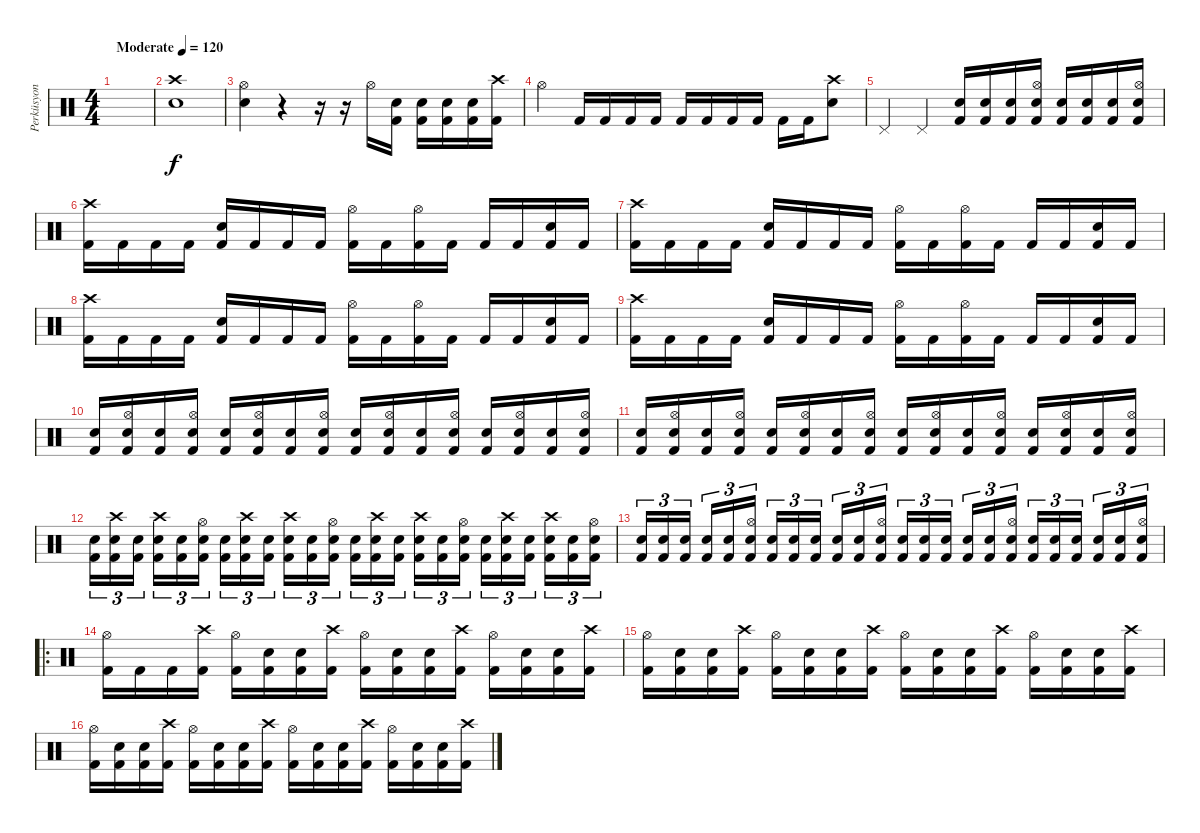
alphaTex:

\track ("Perküsyon" "Perküsyon") {instrument percussion}
\staff {score}
\articulation defaults
\ts (4 4)
\tempo (120 "Moderate")
\clef neutral
\ks c
|
("Crash high (hit)" "Electric Snare (hit)").1 |
("Hi-Hat (open)" "Electric Snare (hit)").4 r.4 r.16 r.16 "Hi-Hat (open)".16 ("Electric Snare (hit)" "Kick (hit) 2").16 ("Electric Snare (hit)" "Kick (hit) 2").16 ("Electric Snare (hit)" "Kick (hit) 2").16 ("Electric Snare (hit)" "Kick (hit) 2").16 ("Crash high (hit)" "Kick (hit) 2").16 |
"Hi-Hat (open)".4 "Kick (hit) 2".16 "Kick (hit) 2".16 "Kick (hit) 2".16 "Kick (hit) 2".16 "Kick (hit) 2".16 "Kick (hit) 2".16 "Kick (hit) 2".16 "Kick (hit) 2".16 "Kick (hit) 2".16 "Kick (hit) 2".16 ("Crash high (hit)" "Electric Snare (hit)").8 |
"Pedal Hi-Hat (hit)".4 "Pedal Hi-Hat (hit)".4 ("Electric Snare (hit)" "Kick (hit) 2").16 ("Electric Snare (hit)" "Kick (hit) 2").16 ("Electric Snare (hit)" "Kick (hit) 2").16 ("Hi-Hat (open)" "Electric Snare (hit)" "Kick (hit) 2").16 ("Electric Snare (hit)" "Kick (hit) 2").16 ("Electric Snare (hit)" "Kick (hit) 2").16 ("Electric Snare (hit)" "Kick (hit) 2").16 ("Hi-Hat (open)" "Electric Snare (hit)" "Kick (hit) 2").16 |
("Crash high (hit)" "Kick (hit) 2").16 "Kick (hit) 2".16 "Kick (hit) 2".16 "Kick (hit) 2".16 ("Electric Snare (hit)" "Kick (hit) 2").16 "Kick (hit) 2".16 "Kick (hit) 2".16 "Kick (hit) 2".16 ("Hi-Hat (open)" "Kick (hit) 2").16 "Kick (hit) 2".16 ("Hi-Hat (open)" "Kick (hit) 2").16 "Kick (hit) 2".16 "Kick (hit) 2".16 "Kick (hit) 2".16 ("Electric Snare (hit)" "Kick (hit) 2").16 "Kick (hit) 2".16 |
("Crash high (hit)" "Kick (hit) 2").16 "Kick (hit) 2".16 "Kick (hit) 2".16 "Kick (hit) 2".16 ("Electric Snare (hit)" "Kick (hit) 2").16 "Kick (hit) 2".16 "Kick (hit) 2".16 "Kick (hit) 2".16 ("Hi-Hat (open)" "Kick (hit) 2").16 "Kick (hit) 2".16 ("Hi-Hat (open)" "Kick (hit) 2").16 "Kick (hit) 2".16 "Kick (hit) 2".16 "Kick (hit) 2".16 ("Electric Snare (hit)" "Kick (hit) 2").16 "Kick (hit) 2".16 |
("Crash high (hit)" "Kick (hit) 2").16 "Kick (hit) 2".16 "Kick (hit) 2".16 "Kick (hit) 2".16 ("Electric Snare (hit)" "Kick (hit) 2").16 "Kick (hit) 2".16 "Kick (hit) 2".16 "Kick (hit) 2".16 ("Hi-Hat (open)" "Kick (hit) 2").16 "Kick (hit) 2".16 ("Hi-Hat (open)" "Kick (hit) 2").16 "Kick (hit) 2".16 "Kick (hit) 2".16 "Kick (hit) 2".16 ("Electric Snare (hit)" "Kick (hit) 2").16 "Kick (hit) 2".16 |
("Crash high (hit)" "Kick (hit) 2").16 "Kick (hit) 2".16 "Kick (hit) 2".16 "Kick (hit) 2".16 ("Electric Snare (hit)" "Kick (hit) 2").16 "Kick (hit) 2".16 "Kick (hit) 2".16 "Kick (hit) 2".16 ("Hi-Hat (open)" "Kick (hit) 2").16 "Kick (hit) 2".16 ("Hi-Hat (open)" "Kick (hit) 2").16 "Kick (hit) 2".16 "Kick (hit) 2".16 "Kick (hit) 2".16 ("Electric Snare (hit)" "Kick (hit) 2").16 "Kick (hit) 2".16 |
("Electric Snare (hit)" "Kick (hit) 2").16 ("Hi-Hat (open)" "Electric Snare (hit)" "Kick (hit) 2").16 ("Electric Snare (hit)" "Kick (hit) 2").16 ("Hi-Hat (open)" "Electric Snare (hit)" "Kick (hit) 2").16 ("Electric Snare (hit)" "Kick (hit) 2").16 ("Hi-Hat (open)" "Electric Snare (hit)" "Kick (hit) 2").16 ("Electric Snare (hit)" "Kick (hit) 2").16 ("Hi-Hat (open)" "Electric Snare (hit)" "Kick (hit) 2").16 ("Electric Snare (hit)" "Kick (hit) 2").16 ("Hi-Hat (open)" "Electric Snare (hit)" "Kick (hit) 2").16 ("Electric Snare (hit)" "Kick (hit) 2").16 ("Hi-Hat (open)" "Electric Snare (hit)" "Kick (hit) 2").16 ("Electric Snare (hit)" "Kick (hit) 2").16 ("Hi-Hat (open)" "Electric Snare (hit)" "Kick (hit) 2").16 ("Electric Snare (hit)" "Kick (hit) 2").16 ("Hi-Hat (open)" "Electric Snare (hit)" "Kick (hit) 2").16 |
("Electric Snare (hit)" "Kick (hit) 2").16 ("Hi-Hat (open)" "Electric Snare (hit)" "Kick (hit) 2").16 ("Electric Snare (hit)" "Kick (hit) 2").16 ("Hi-Hat (open)" "Electric Snare (hit)" "Kick (hit) 2").16 ("Electric Snare (hit)" "Kick (hit) 2").16 ("Hi-Hat (open)" "Electric Snare (hit)" "Kick (hit) 2").16 ("Electric Snare (hit)" "Kick (hit) 2").16 ("Hi-Hat (open)" "Electric Snare (hit)" "Kick (hit) 2").16 ("Electric Snare (hit)" "Kick (hit) 2").16 ("Hi-Hat (open)" "Electric Snare (hit)" "Kick (hit) 2").16 ("Electric Snare (hit)" "Kick (hit) 2").16 ("Hi-Hat (open)" "Electric Snare (hit)" "Kick (hit) 2").16 ("Electric Snare (hit)" "Kick (hit) 2").16 ("Hi-Hat (open)" "Electric Snare (hit)" "Kick (hit) 2").16 ("Electric Snare (hit)" "Kick (hit) 2").16 ("Hi-Hat (open)" "Electric Snare (hit)" "Kick (hit) 2").16 |
("Electric Snare (hit)" "Kick (hit) 2").16{tu (3 2)} ("Crash high (hit)" "Electric Snare (hit)" "Kick (hit) 2").16{tu (3 2)} ("Electric Snare (hit)" "Kick (hit) 2").16{tu (3 2) beam splitsecondary} ("Crash high (hit)" "Electric Snare (hit)" "Kick (hit) 2").16{tu (3 2)} ("Electric Snare (hit)" "Kick (hit) 2").16{tu (3 2)} ("Hi-Hat (open)" "Electric Snare (hit)" "Kick (hit) 2").16{tu (3 2)} ("Electric Snare (hit)" "Kick (hit) 2").16{tu (3 2)} ("Crash high (hit)" "Electric Snare (hit)" "Kick (hit) 2").16{tu (3 2)} ("Electric Snare (hit)" "Kick (hit) 2").16{tu (3 2) beam splitsecondary} ("Crash high (hit)" "Electric Snare (hit)" "Kick (hit) 2").16{tu (3 2)} ("Electric Snare (hit)" "Kick (hit) 2").16{tu (3 2)} ("Hi-Hat (open)" "Electric Snare (hit)" "Kick (hit) 2").16{tu (3 2)} ("Electric Snare (hit)" "Kick (hit) 2").16{tu (3 2)} ("Crash high (hit)" "Electric Snare (hit)" "Kick (hit) 2").16{tu (3 2)} ("Electric Snare (hit)" "Kick (hit) 2").16{tu (3 2) beam splitsecondary} ("Crash high (hit)" "Electric Snare (hit)" "Kick (hit) 2").16{tu (3 2)} ("Electric Snare (hit)" "Kick (hit) 2").16{tu (3 2)} ("Hi-Hat (open)" "Electric Snare (hit)" "Kick (hit) 2").16{tu (3 2)} ("Electric Snare (hit)" "Kick (hit) 2").16{tu (3 2)} ("Crash high (hit)" "Electric Snare (hit)" "Kick (hit) 2").16{tu (3 2)} ("Electric Snare (hit)" "Kick (hit) 2").16{tu (3 2) beam splitsecondary} ("Crash high (hit)" "Electric Snare (hit)" "Kick (hit) 2").16{tu (3 2)} ("Electric Snare (hit)" "Kick (hit) 2").16{tu (3 2)} ("Hi-Hat (open)" "Electric Snare (hit)" "Kick (hit) 2").16{tu (3 2)} |
("Electric Snare (hit)" "Kick (hit) 2").16{tu (3 2)} ("Electric Snare (hit)" "Kick (hit) 2").16{tu (3 2)} ("Electric Snare (hit)" "Kick (hit) 2").16{tu (3 2) beam splitsecondary} ("Electric Snare (hit)" "Kick (hit) 2").16{tu (3 2)} ("Electric Snare (hit)" "Kick (hit) 2").16{tu (3 2)} ("Hi-Hat (open)" "Electric Snare (hit)" "Kick (hit) 2").16{tu (3 2)} ("Electric Snare (hit)" "Kick (hit) 2").16{tu (3 2)} ("Electric Snare (hit)" "Kick (hit) 2").16{tu (3 2)} ("Electric Snare (hit)" "Kick (hit) 2").16{tu (3 2) beam splitsecondary} ("Electric Snare (hit)" "Kick (hit) 2").16{tu (3 2)} ("Electric Snare (hit)" "Kick (hit) 2").16{tu (3 2)} ("Hi-Hat (open)" "Electric Snare (hit)" "Kick (hit) 2").16{tu (3 2)} ("Electric Snare (hit)" "Kick (hit) 2").16{tu (3 2)} ("Electric Snare (hit)" "Kick (hit) 2").16{tu (3 2)} ("Electric Snare (hit)" "Kick (hit) 2").16{tu (3 2) beam splitsecondary} ("Electric Snare (hit)" "Kick (hit) 2").16{tu (3 2)} ("Electric Snare (hit)" "Kick (hit) 2").16{tu (3 2)} ("Hi-Hat (open)" "Electric Snare (hit)" "Kick (hit) 2").16{tu (3 2)} ("Electric Snare (hit)" "Kick (hit) 2").16{tu (3 2)} ("Electric Snare (hit)" "Kick (hit) 2").16{tu (3 2)} ("Electric Snare (hit)" "Kick (hit) 2").16{tu (3 2) beam splitsecondary} ("Electric Snare (hit)" "Kick (hit) 2").16{tu (3 2)} ("Electric Snare (hit)" "Kick (hit) 2").16{tu (3 2)} ("Hi-Hat (open)" "Electric Snare (hit)" "Kick (hit) 2").16{tu (3 2)} |
\ro
("Hi-Hat (open)" "Kick (hit) 2").16 "Kick (hit) 2".16 "Kick (hit) 2".16 ("Crash high (hit)" "Kick (hit) 2").16 ("Hi-Hat (open)" "Kick (hit) 2").16 ("Electric Snare (hit)" "Kick (hit) 2").16 ("Electric Snare (hit)" "Kick (hit) 2").16 ("Crash high (hit)" "Kick (hit) 2").16 ("Hi-Hat (open)" "Kick (hit) 2").16 ("Electric Snare (hit)" "Kick (hit) 2").16 ("Electric Snare (hit)" "Kick (hit) 2").16 ("Crash high (hit)" "Kick (hit) 2").16 ("Hi-Hat (open)" "Kick (hit) 2").16 ("Electric Snare (hit)" "Kick (hit) 2").16 ("Electric Snare (hit)" "Kick (hit) 2").16 ("Crash high (hit)" "Kick (hit) 2").16 |
("Hi-Hat (open)" "Kick (hit) 2").16 ("Electric Snare (hit)" "Kick (hit) 2").16 ("Electric Snare (hit)" "Kick (hit) 2").16 ("Crash high (hit)" "Kick (hit) 2").16 ("Hi-Hat (open)" "Kick (hit) 2").16 ("Electric Snare (hit)" "Kick (hit) 2").16 ("Electric Snare (hit)" "Kick (hit) 2").16 ("Crash high (hit)" "Kick (hit) 2").16 ("Hi-Hat (open)" "Kick (hit) 2").16 ("Electric Snare (hit)" "Kick (hit) 2").16 ("Electric Snare (hit)" "Kick (hit) 2").16 ("Crash high (hit)" "Kick (hit) 2").16 ("Hi-Hat (open)" "Kick (hit) 2").16 ("Electric Snare (hit)" "Kick (hit) 2").16 ("Electric Snare (hit)" "Kick (hit) 2").16 ("Crash high (hit)" "Kick (hit) 2").16 |
("Hi-Hat (open)" "Kick (hit) 2").16 ("Electric Snare (hit)" "Kick (hit) 2").16 ("Electric Snare (hit)" "Kick (hit) 2").16 ("Crash high (hit)" "Kick (hit) 2").16 ("Hi-Hat (open)" "Kick (hit) 2").16 ("Electric Snare (hit)" "Kick (hit) 2").16 ("Electric Snare (hit)" "Kick (hit) 2").16 ("Crash high (hit)" "Kick (hit) 2").16 ("Hi-Hat (open)" "Kick (hit) 2").16 ("Electric Snare (hit)" "Kick (hit) 2").16 ("Electric Snare (hit)" "Kick (hit) 2").16 ("Crash high (hit)" "Kick (hit) 2").16 ("Hi-Hat (open)" "Kick (hit) 2").16 ("Electric Snare (hit)" "Kick (hit) 2").16 ("Electric Snare (hit)" "Kick (hit) 2").16 ("Crash high (hit)" "Kick (hit) 2").16
